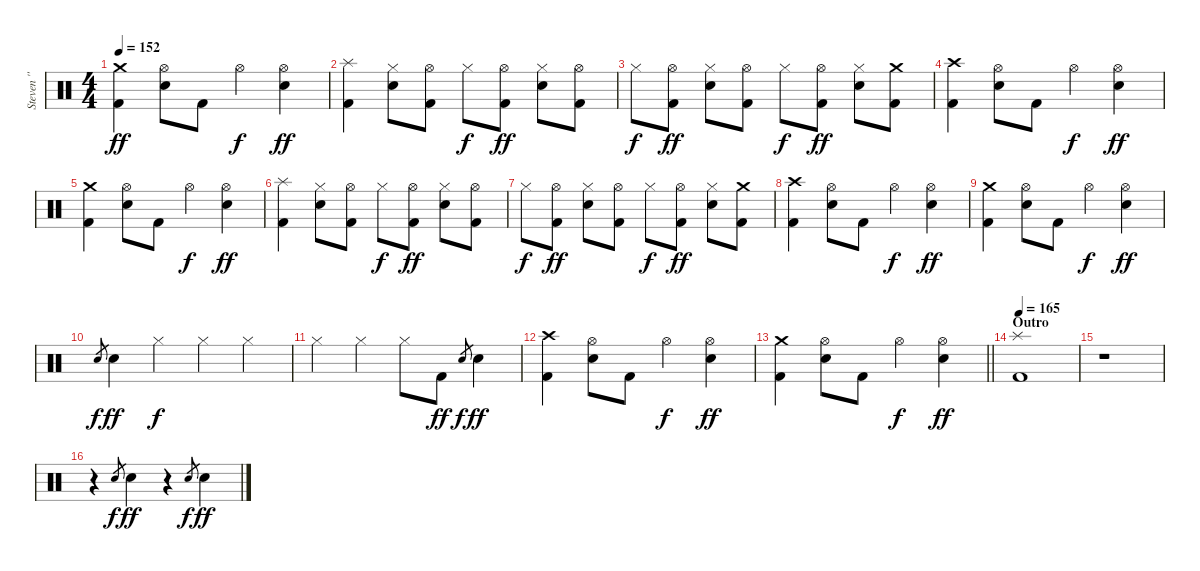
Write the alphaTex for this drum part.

\track ("Steven '' Popcorn '' Adler" "Steven '' ") {instrument percussion}
\staff {score}
\articulation defaults
\ts (4 4)
\tempo 152
\clef neutral
\ks c
("Crash medium (hit)" "Kick (hit) 2").4{dy ff} ("Hi-Hat (open)" "Snare (hit) 2").8 "Kick (hit) 2".8 "Hi-Hat (open)".4{dy f} ("Hi-Hat (open)" "Snare (hit) 2").4{dy ff} |
("Splash (hit)" "Kick (hit) 2").4 ("Hi-Hat (closed)" "Snare (hit) 2").8 ("Hi-Hat (open)" "Kick (hit) 2").8 "Hi-Hat (closed)".8{dy f} ("Hi-Hat (open)" "Kick (hit) 2").8{dy ff} ("Hi-Hat (closed)" "Snare (hit) 2").8 ("Hi-Hat (open)" "Kick (hit) 2").8 |
"Hi-Hat (closed)".8{dy f} ("Hi-Hat (open)" "Kick (hit) 2").8{dy ff} ("Hi-Hat (closed)" "Snare (hit) 2").8 ("Hi-Hat (open)" "Kick (hit) 2").8 "Hi-Hat (closed)".8{dy f} ("Hi-Hat (open)" "Kick (hit) 2").8{dy ff} ("Hi-Hat (closed)" "Snare (hit) 2").8 ("Crash medium (hit)" "Kick (hit) 2").8 |
("Crash high (hit)" "Kick (hit) 2").4 ("Hi-Hat (open)" "Snare (hit) 2").8 "Kick (hit) 2".8 "Hi-Hat (open)".4{dy f} ("Hi-Hat (open)" "Snare (hit) 2").4{dy ff} |
("Crash medium (hit)" "Kick (hit) 2").4 ("Hi-Hat (open)" "Snare (hit) 2").8 "Kick (hit) 2".8 "Hi-Hat (open)".4{dy f} ("Hi-Hat (open)" "Snare (hit) 2").4{dy ff} |
("Splash (hit)" "Kick (hit) 2").4 ("Hi-Hat (closed)" "Snare (hit) 2").8 ("Hi-Hat (open)" "Kick (hit) 2").8 "Hi-Hat (closed)".8{dy f} ("Hi-Hat (open)" "Kick (hit) 2").8{dy ff} ("Hi-Hat (closed)" "Snare (hit) 2").8 ("Hi-Hat (open)" "Kick (hit) 2").8 |
"Hi-Hat (closed)".8{dy f} ("Hi-Hat (open)" "Kick (hit) 2").8{dy ff} ("Hi-Hat (closed)" "Snare (hit) 2").8 ("Hi-Hat (open)" "Kick (hit) 2").8 "Hi-Hat (closed)".8{dy f} ("Hi-Hat (open)" "Kick (hit) 2").8{dy ff} ("Hi-Hat (closed)" "Snare (hit) 2").8 ("Crash medium (hit)" "Kick (hit) 2").8 |
("Crash high (hit)" "Kick (hit) 2").4 ("Hi-Hat (open)" "Snare (hit) 2").8 "Kick (hit) 2".8 "Hi-Hat (open)".4{dy f} ("Hi-Hat (open)" "Snare (hit) 2").4{dy ff} |
("Crash medium (hit)" "Kick (hit) 2").4 ("Hi-Hat (open)" "Snare (hit) 2").8 "Kick (hit) 2".8 "Hi-Hat (open)".4{dy f} ("Hi-Hat (open)" "Snare (hit) 2").4{dy ff} |
"Snare (hit) 2".8{gr dy f} "Snare (hit) 2".4{dy ff} "Hi-Hat (closed)".4{dy f} "Hi-Hat (closed)".4 "Hi-Hat (closed)".4 |
"Hi-Hat (closed)".4 "Hi-Hat (closed)".4 "Hi-Hat (closed)".8 "Kick (hit) 2".8{dy ff} "Snare (hit) 2".8{gr dy f} "Snare (hit) 2".4{dy ff} |
("Crash high (hit)" "Kick (hit) 2").4 ("Hi-Hat (open)" "Snare (hit) 2").8 "Kick (hit) 2".8 "Hi-Hat (open)".4{dy f} ("Hi-Hat (open)" "Snare (hit) 2").4{dy ff} |
\barLineRight lightlight
("Crash medium (hit)" "Kick (hit) 2").4 ("Hi-Hat (open)" "Snare (hit) 2").8 "Kick (hit) 2".8 "Hi-Hat (open)".4{dy f} ("Hi-Hat (open)" "Snare (hit) 2").4{dy ff} |
\section ("" "Outro")
\tempo 165
("Splash (hit)" "Kick (hit) 2").1 |
r.1 |
r.4 "Snare (hit) 2".8{gr dy f} "Snare (hit) 2".4{dy ff} r.4 "Snare (hit) 2".8{gr dy f} "Snare (hit) 2".4{dy ff}
